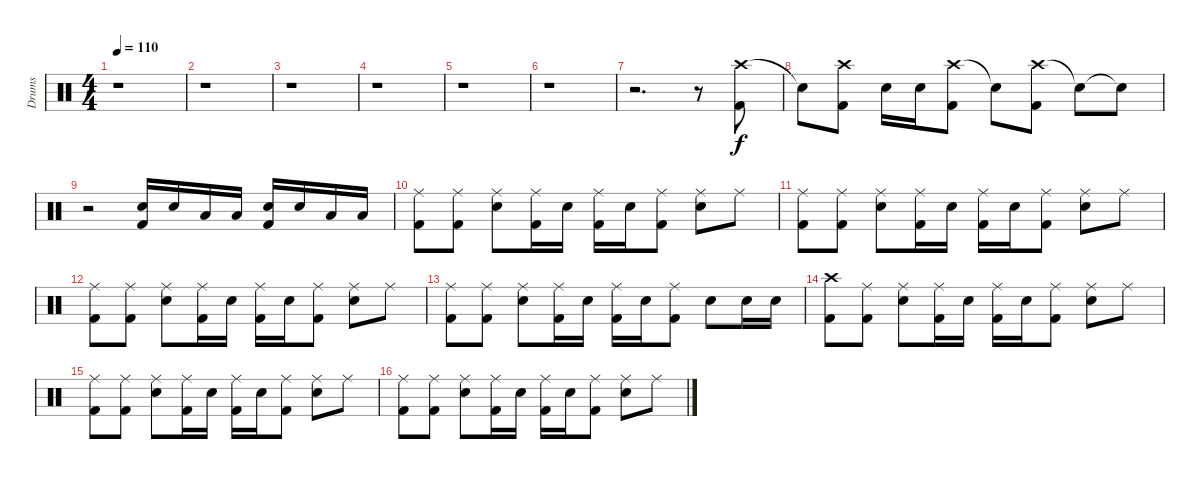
\track ("Drums" "Drums") {instrument percussion}
\staff {score}
\articulation defaults
\ts (4 4)
\tempo 110
\clef neutral
\ks c
r.1{dy f} |
r.1 |
r.1 |
r.1 |
r.1 |
r.1 |
r.2{d} r.8 ("Crash high (hit)" "Kick (hit) 2").8 |
"Snare (hit)"{t}.8 ("Crash high (hit)" "Kick (hit) 2").8 "Electric Snare (hit)".16 "Electric Snare (hit)".16 ("Crash high (hit)" "Kick (hit) 2").8 "Snare (hit)"{t}.8 ("Crash high (hit)" "Kick (hit) 2").8 "Snare (hit)"{t}.8 "Snare (hit)"{t}.8 |
r.2 ("Electric Snare (hit)" "Kick (hit) 2").16 "Electric Snare (hit)".16 "Low Tom (hit)".16 "Low Tom (hit)".16 ("Electric Snare (hit)" "Kick (hit) 2").16 "Electric Snare (hit)".16 "Low Tom (hit)".16 "Low Tom (hit)".16 |
("Ride (middle)" "Kick (hit) 2").8 ("Ride (middle)" "Kick (hit) 2").8 ("Ride (middle)" "Electric Snare (hit)").8 ("Ride (middle)" "Kick (hit) 2").16 "Electric Snare (hit)".16 ("Ride (middle)" "Kick (hit) 2").16 "Electric Snare (hit)".16 ("Ride (middle)" "Kick (hit) 2").8 ("Ride (middle)" "Electric Snare (hit)").8 "Ride (middle)".8 |
("Ride (middle)" "Kick (hit) 2").8 ("Ride (middle)" "Kick (hit) 2").8 ("Ride (middle)" "Electric Snare (hit)").8 ("Ride (middle)" "Kick (hit) 2").16 "Electric Snare (hit)".16 ("Ride (middle)" "Kick (hit) 2").16 "Electric Snare (hit)".16 ("Ride (middle)" "Kick (hit) 2").8 ("Ride (middle)" "Electric Snare (hit)").8 "Ride (middle)".8 |
("Ride (middle)" "Kick (hit) 2").8 ("Ride (middle)" "Kick (hit) 2").8 ("Ride (middle)" "Electric Snare (hit)").8 ("Ride (middle)" "Kick (hit) 2").16 "Electric Snare (hit)".16 ("Ride (middle)" "Kick (hit) 2").16 "Electric Snare (hit)".16 ("Ride (middle)" "Kick (hit) 2").8 ("Ride (middle)" "Electric Snare (hit)").8 "Ride (middle)".8 |
("Ride (middle)" "Kick (hit) 2").8 ("Ride (middle)" "Kick (hit) 2").8 ("Ride (middle)" "Electric Snare (hit)").8 ("Ride (middle)" "Kick (hit) 2").16 "Electric Snare (hit)".16 ("Ride (middle)" "Kick (hit) 2").16 "Electric Snare (hit)".16 ("Ride (middle)" "Kick (hit) 2").8 "Electric Snare (hit)".8 "Electric Snare (hit)".16 "Electric Snare (hit)".16 |
("Crash high (hit)" "Kick (hit) 2").8 ("Ride (middle)" "Kick (hit) 2").8 ("Ride (middle)" "Electric Snare (hit)").8 ("Ride (middle)" "Kick (hit) 2").16 "Electric Snare (hit)".16 ("Ride (middle)" "Kick (hit) 2").16 "Electric Snare (hit)".16 ("Ride (middle)" "Kick (hit) 2").8 ("Ride (middle)" "Electric Snare (hit)").8 "Ride (middle)".8 |
("Ride (middle)" "Kick (hit) 2").8 ("Ride (middle)" "Kick (hit) 2").8 ("Ride (middle)" "Electric Snare (hit)").8 ("Ride (middle)" "Kick (hit) 2").16 "Electric Snare (hit)".16 ("Ride (middle)" "Kick (hit) 2").16 "Electric Snare (hit)".16 ("Ride (middle)" "Kick (hit) 2").8 ("Ride (middle)" "Electric Snare (hit)").8 "Ride (middle)".8 |
("Ride (middle)" "Kick (hit) 2").8 ("Ride (middle)" "Kick (hit) 2").8 ("Ride (middle)" "Electric Snare (hit)").8 ("Ride (middle)" "Kick (hit) 2").16 "Electric Snare (hit)".16 ("Ride (middle)" "Kick (hit) 2").16 "Electric Snare (hit)".16 ("Ride (middle)" "Kick (hit) 2").8 ("Ride (middle)" "Electric Snare (hit)").8 "Ride (middle)".8
